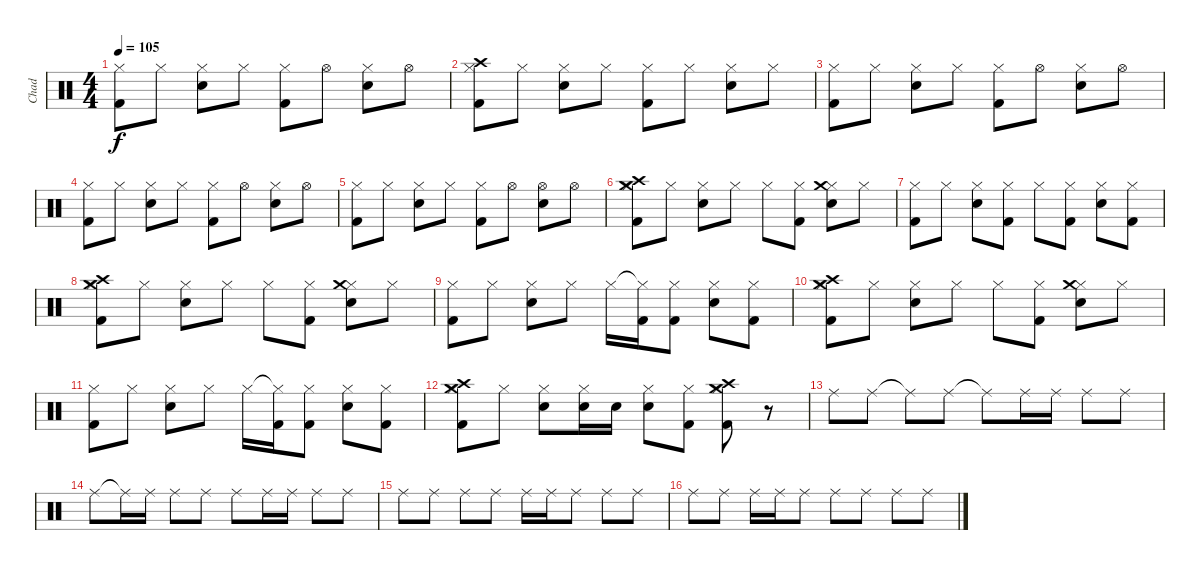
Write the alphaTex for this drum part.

\track ("Chad" "Chad") {instrument percussion}
\staff {score}
\articulation defaults
\ts (4 4)
\tempo 105
\clef neutral
\ks c
("Hi-Hat (closed)" "Kick (hit) 2").8{dy f} "Hi-Hat (closed)".8 ("Hi-Hat (closed)" "Electric Snare (hit)").8 "Hi-Hat (closed)".8 ("Hi-Hat (closed)" "Kick (hit) 2").8 "Hi-Hat (open)".8 ("Hi-Hat (closed)" "Electric Snare (hit)").8 "Hi-Hat (open)".8 |
("Hi-Hat (closed)" "Kick (hit) 2" "Crash high (hit)").8 "Hi-Hat (closed)".8 ("Hi-Hat (closed)" "Electric Snare (hit)").8 "Hi-Hat (closed)".8 ("Hi-Hat (closed)" "Kick (hit) 2").8 "Hi-Hat (closed)".8 ("Hi-Hat (closed)" "Electric Snare (hit)").8 "Hi-Hat (closed)".8 |
("Hi-Hat (closed)" "Kick (hit) 2").8 "Hi-Hat (closed)".8 ("Hi-Hat (closed)" "Electric Snare (hit)").8 "Hi-Hat (closed)".8 ("Hi-Hat (closed)" "Kick (hit) 2").8 "Hi-Hat (open)".8 ("Hi-Hat (closed)" "Electric Snare (hit)").8 "Hi-Hat (open)".8 |
("Hi-Hat (closed)" "Kick (hit) 2").8 "Hi-Hat (closed)".8 ("Hi-Hat (closed)" "Electric Snare (hit)").8 "Hi-Hat (closed)".8 ("Hi-Hat (closed)" "Kick (hit) 2").8 "Hi-Hat (open)".8 ("Hi-Hat (closed)" "Electric Snare (hit)").8 "Hi-Hat (open)".8 |
("Hi-Hat (closed)" "Kick (hit) 2").8 "Hi-Hat (closed)".8 ("Hi-Hat (closed)" "Electric Snare (hit)").8 "Hi-Hat (closed)".8 ("Hi-Hat (closed)" "Kick (hit) 2").8 "Hi-Hat (open)".8 ("Hi-Hat (open)" "Electric Snare (hit)").8 "Hi-Hat (open)".8 |
("Hi-Hat (closed)" "Kick (hit) 2" "Crash high (hit)" "Crash medium (hit)").8 "Hi-Hat (closed)".8 ("Hi-Hat (closed)" "Electric Snare (hit)").8 "Hi-Hat (closed)".8 "Hi-Hat (closed)".8 ("Hi-Hat (closed)" "Kick (hit) 2").8 ("Hi-Hat (closed)" "Electric Snare (hit)" "Crash medium (hit)").8 "Hi-Hat (closed)".8 |
("Hi-Hat (closed)" "Kick (hit) 2").8 "Hi-Hat (closed)".8 ("Hi-Hat (closed)" "Electric Snare (hit)").8 ("Hi-Hat (closed)" "Kick (hit) 2").8 "Hi-Hat (closed)".8 ("Hi-Hat (closed)" "Kick (hit) 2").8 ("Hi-Hat (closed)" "Electric Snare (hit)").8 ("Hi-Hat (closed)" "Kick (hit) 2").8 |
("Hi-Hat (closed)" "Kick (hit) 2" "Crash high (hit)" "Crash medium (hit)").8 "Hi-Hat (closed)".8 ("Hi-Hat (closed)" "Electric Snare (hit)").8 "Hi-Hat (closed)".8 "Hi-Hat (closed)".8 ("Hi-Hat (closed)" "Kick (hit) 2").8 ("Hi-Hat (closed)" "Electric Snare (hit)" "Crash medium (hit)").8 "Hi-Hat (closed)".8 |
("Hi-Hat (closed)" "Kick (hit) 2").8 "Hi-Hat (closed)".8 ("Hi-Hat (closed)" "Electric Snare (hit)").8 "Hi-Hat (closed)".8 "Hi-Hat (closed)".16 ("Hi-Hat (closed)"{t} "Kick (hit) 2").16 ("Hi-Hat (closed)" "Kick (hit) 2").8 ("Hi-Hat (closed)" "Electric Snare (hit)").8 ("Hi-Hat (closed)" "Kick (hit) 2").8 |
("Hi-Hat (closed)" "Kick (hit) 2" "Crash high (hit)" "Crash medium (hit)").8 "Hi-Hat (closed)".8 ("Hi-Hat (closed)" "Electric Snare (hit)").8 "Hi-Hat (closed)".8 "Hi-Hat (closed)".8 ("Hi-Hat (closed)" "Kick (hit) 2").8 ("Hi-Hat (closed)" "Electric Snare (hit)" "Crash medium (hit)").8 "Hi-Hat (closed)".8 |
("Hi-Hat (closed)" "Kick (hit) 2").8 "Hi-Hat (closed)".8 ("Hi-Hat (closed)" "Electric Snare (hit)").8 "Hi-Hat (closed)".8 "Hi-Hat (closed)".16 ("Hi-Hat (closed)"{t} "Kick (hit) 2").16 ("Hi-Hat (closed)" "Kick (hit) 2").8 ("Hi-Hat (closed)" "Electric Snare (hit)").8 ("Hi-Hat (closed)" "Kick (hit) 2").8 |
("Hi-Hat (closed)" "Kick (hit) 2" "Crash high (hit)" "Crash medium (hit)").8 "Hi-Hat (closed)".8 ("Hi-Hat (closed)" "Electric Snare (hit)").8 ("Hi-Hat (closed)" "Electric Snare (hit)").16 "Electric Snare (hit)".16 ("Hi-Hat (closed)" "Electric Snare (hit)").8 ("Hi-Hat (closed)" "Kick (hit) 2").8 ("Hi-Hat (closed)" "Kick (hit) 2" "Crash medium (hit)" "Crash high (hit)").8 r.8 |
"Ride (middle)".8 "Ride (middle)".8 "Ride (middle)"{t}.8 "Ride (middle)".8 "Ride (middle)"{t}.8 "Ride (middle)".16 "Ride (middle)".16 "Ride (middle)".8 "Ride (middle)".8 |
"Ride (middle)".8 "Ride (middle)"{t}.16 "Ride (middle)".16 "Ride (middle)".8 "Ride (middle)".8 "Ride (middle)".8 "Ride (middle)".16 "Ride (middle)".16 "Ride (middle)".8 "Ride (middle)".8 |
"Ride (middle)".8 "Ride (middle)".8 "Ride (middle)".8 "Ride (middle)".8 "Ride (middle)".16 "Ride (middle)".16 "Ride (middle)".8 "Ride (middle)".8 "Ride (middle)".8 |
"Ride (middle)".8 "Ride (middle)".8 "Ride (middle)".16 "Ride (middle)".16 "Ride (middle)".8 "Ride (middle)".8 "Ride (middle)".8 "Ride (middle)".8 "Ride (middle)".8
